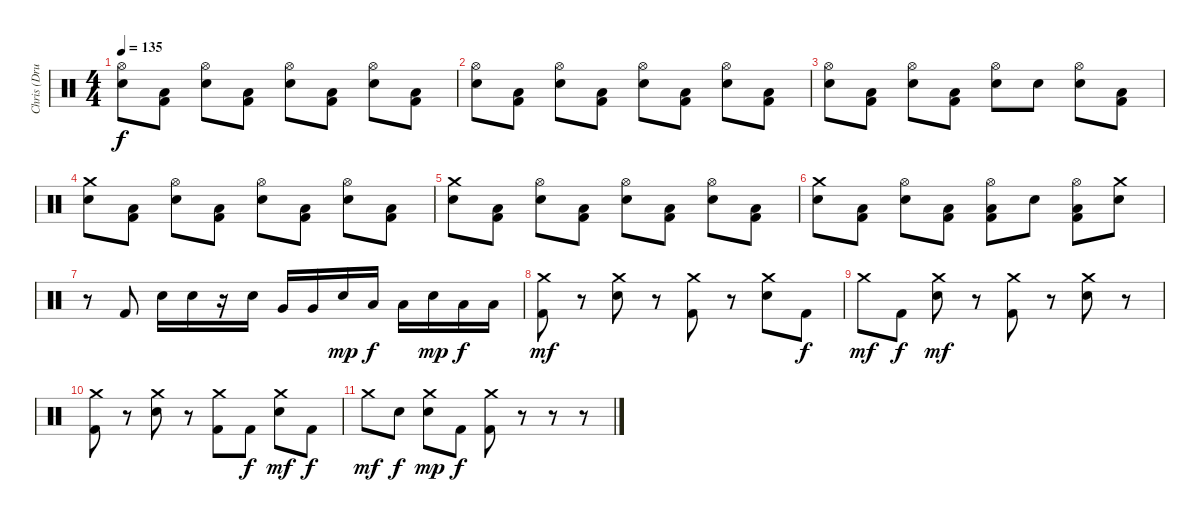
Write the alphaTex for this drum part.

\track ("Chris (Drums)" "Chris (Dru") {instrument percussion}
\staff {score}
\articulation defaults
\ts (4 4)
\tempo 135
\clef neutral
\ks c
("Hi-Hat (open)" "Snare (hit) 2").8{dy f} ("Kick (hit) 2" "Low Floor Tom (hit)").8 ("Hi-Hat (open)" "Snare (hit) 2").8 ("Kick (hit) 2" "Low Floor Tom (hit)").8 ("Hi-Hat (open)" "Snare (hit) 2").8 ("Kick (hit) 2" "Low Floor Tom (hit)").8 ("Hi-Hat (open)" "Snare (hit) 2").8 ("Kick (hit) 2" "Low Floor Tom (hit)").8 |
("Hi-Hat (open)" "Snare (hit) 2").8 ("Kick (hit) 2" "Low Floor Tom (hit)").8 ("Hi-Hat (open)" "Snare (hit) 2").8 ("Kick (hit) 2" "Low Floor Tom (hit)").8 ("Hi-Hat (open)" "Snare (hit) 2").8 ("Kick (hit) 2" "Low Floor Tom (hit)").8 ("Hi-Hat (open)" "Snare (hit) 2").8 ("Kick (hit) 2" "Low Floor Tom (hit)").8 |
("Hi-Hat (open)" "Snare (hit) 2").8 ("Kick (hit) 2" "Low Floor Tom (hit)").8 ("Hi-Hat (open)" "Snare (hit) 2").8 ("Kick (hit) 2" "Low Floor Tom (hit)").8 ("Hi-Hat (open)" "Snare (hit) 2").8 "Snare (hit) 2".8 ("Hi-Hat (open)" "Snare (hit) 2").8 ("Kick (hit) 2" "Low Floor Tom (hit)").8 |
("Crash medium (hit)" "Snare (hit) 2").8 ("Kick (hit) 2" "Low Floor Tom (hit)").8 ("Hi-Hat (open)" "Snare (hit) 2").8 ("Kick (hit) 2" "Low Floor Tom (hit)").8 ("Hi-Hat (open)" "Snare (hit) 2").8 ("Kick (hit) 2" "Low Floor Tom (hit)").8 ("Hi-Hat (open)" "Snare (hit) 2").8 ("Kick (hit) 2" "Low Floor Tom (hit)").8 |
("Crash medium (hit)" "Snare (hit) 2").8 ("Kick (hit) 2" "Low Floor Tom (hit)").8 ("Hi-Hat (open)" "Snare (hit) 2").8 ("Kick (hit) 2" "Low Floor Tom (hit)").8 ("Hi-Hat (open)" "Snare (hit) 2").8 ("Kick (hit) 2" "Low Floor Tom (hit)").8 ("Hi-Hat (open)" "Snare (hit) 2").8 ("Kick (hit) 2" "Low Floor Tom (hit)").8 |
("Crash medium (hit)" "Snare (hit) 2").8 ("Kick (hit) 2" "Low Floor Tom (hit)").8 ("Hi-Hat (open)" "Snare (hit) 2").8 ("Kick (hit) 2" "Low Floor Tom (hit)").8 ("Hi-Hat (open)" "Kick (hit) 2" "Low Floor Tom (hit)").8 "Snare (hit) 2".8 ("Hi-Hat (open)" "Kick (hit) 2" "Low Floor Tom (hit)").8 ("Crash medium (hit)" "Snare (hit) 2").8 |
r.8 "Kick (hit) 2".8 "Snare (hit) 2".16 "Snare (hit) 2".16 r.16 "Snare (hit) 2".16 "Very Low Tom (hit)".16 "Very Low Tom (hit)".16 "Snare (hit) 2".16{dy mp} "Low Floor Tom (hit)".16{dy f} "Low Floor Tom (hit)".16 "Snare (hit) 2".16{dy mp} "Low Floor Tom (hit)".16{dy f} "Low Floor Tom (hit)".16 |
("Crash medium (hit)" "Kick (hit) 2").8{dy mf} r.8 ("Crash medium (hit)" "Snare (hit) 2").8 r.8 ("Crash medium (hit)" "Kick (hit) 2").8 r.8 ("Crash medium (hit)" "Snare (hit) 2").8 "Kick (hit) 2".8{dy f} |
"Crash medium (hit)".8{dy mf} "Kick (hit) 2".8{dy f} ("Crash medium (hit)" "Snare (hit) 2").8{dy mf} r.8 ("Crash medium (hit)" "Kick (hit) 2").8 r.8 ("Crash medium (hit)" "Snare (hit) 2").8 r.8 |
("Crash medium (hit)" "Kick (hit) 2").8 r.8 ("Crash medium (hit)" "Snare (hit) 2").8 r.8 ("Crash medium (hit)" "Kick (hit) 2").8 "Kick (hit) 2".8{dy f} ("Crash medium (hit)" "Snare (hit) 2").8{dy mf} "Kick (hit) 2".8{dy f} |
"Crash medium (hit)".8{dy mf} "Snare (hit) 2".8{dy f} ("Crash medium (hit)" "Snare (hit) 2").8{dy mp} "Kick (hit) 2".8{dy f} ("Crash medium (hit)" "Kick (hit) 2").8 r.8 r.8 r.8
